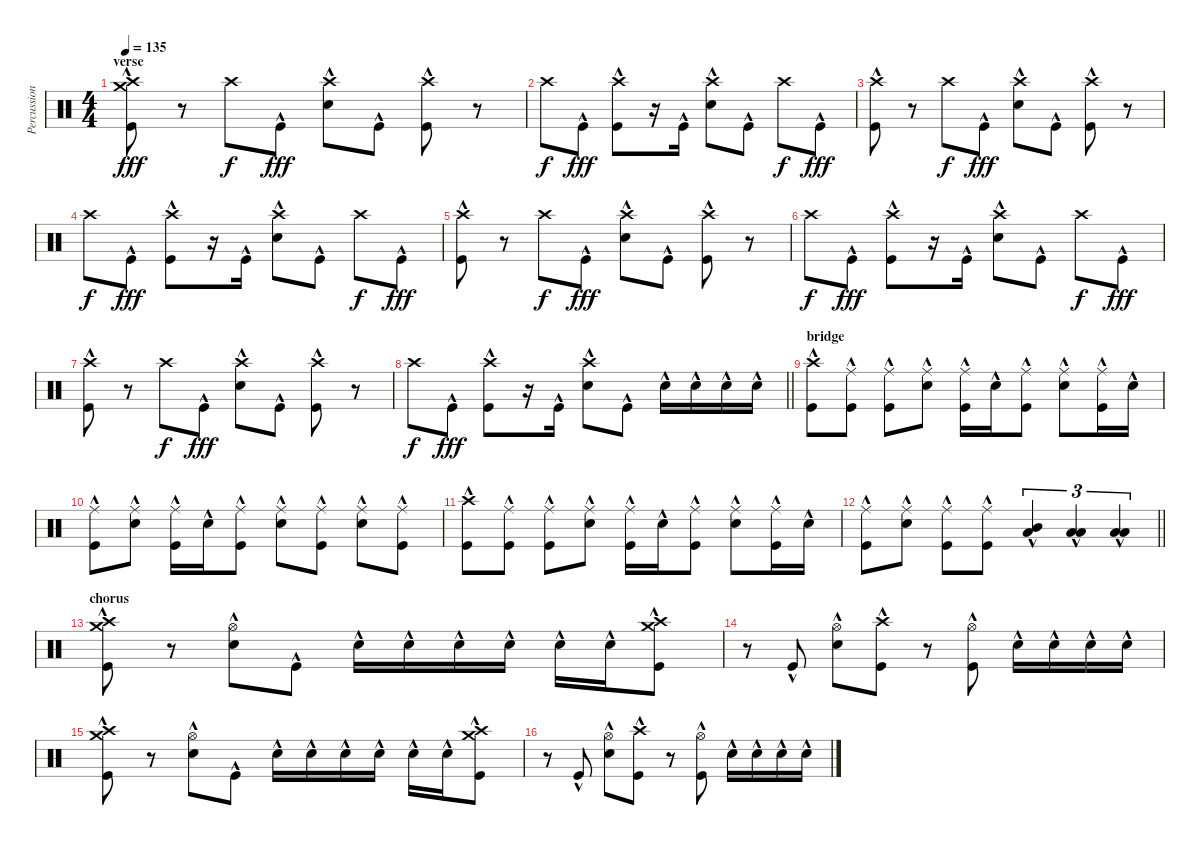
\track ("Percussion" "Percussion") {instrument percussion}
\staff {score}
\articulation defaults
\ts (4 4)
\section ("" "verse")
\tempo 135
\clef neutral
\ks c
("Crash medium (hit)" "Crash high (hit)" "Kick (hit)"{hac}).8{dy fff} r.8 "Crash high (hit)".8{dy f} "Kick (hit)"{hac}.8{dy fff} ("Crash high (hit)" "Snare (hit) 2"{hac}).8 "Kick (hit)"{hac}.8 ("Crash high (hit)" "Kick (hit)"{hac}).8 r.8 |
"Crash high (hit)".8{dy f} "Kick (hit)"{hac}.8{dy fff} ("Crash high (hit)" "Kick (hit)"{hac}).8 r.16 "Kick (hit)"{hac}.16 ("Crash high (hit)" "Snare (hit) 2"{hac}).8 "Kick (hit)"{hac}.8 "Crash high (hit)".8{dy f} "Kick (hit)"{hac}.8{dy fff} |
("Crash high (hit)" "Kick (hit)"{hac}).8 r.8 "Crash high (hit)".8{dy f} "Kick (hit)"{hac}.8{dy fff} ("Crash high (hit)" "Snare (hit) 2"{hac}).8 "Kick (hit)"{hac}.8 ("Crash high (hit)" "Kick (hit)"{hac}).8 r.8 |
"Crash high (hit)".8{dy f} "Kick (hit)"{hac}.8{dy fff} ("Crash high (hit)" "Kick (hit)"{hac}).8 r.16 "Kick (hit)"{hac}.16 ("Crash high (hit)" "Snare (hit) 2"{hac}).8 "Kick (hit)"{hac}.8 "Crash high (hit)".8{dy f} "Kick (hit)"{hac}.8{dy fff} |
("Crash high (hit)" "Kick (hit)"{hac}).8 r.8 "Crash high (hit)".8{dy f} "Kick (hit)"{hac}.8{dy fff} ("Crash high (hit)" "Snare (hit) 2"{hac}).8 "Kick (hit)"{hac}.8 ("Crash high (hit)" "Kick (hit)"{hac}).8 r.8 |
"Crash high (hit)".8{dy f} "Kick (hit)"{hac}.8{dy fff} ("Crash high (hit)" "Kick (hit)"{hac}).8 r.16 "Kick (hit)"{hac}.16 ("Crash high (hit)" "Snare (hit) 2"{hac}).8 "Kick (hit)"{hac}.8 "Crash high (hit)".8{dy f} "Kick (hit)"{hac}.8{dy fff} |
("Crash high (hit)" "Kick (hit)"{hac}).8 r.8 "Crash high (hit)".8{dy f} "Kick (hit)"{hac}.8{dy fff} ("Crash high (hit)" "Snare (hit) 2"{hac}).8 "Kick (hit)"{hac}.8 ("Crash high (hit)" "Kick (hit)"{hac}).8 r.8 |
\barLineRight lightlight "Crash high (hit)".8{dy f} "Kick (hit)"{hac}.8{dy fff}
("Crash high (hit)" "Kick (hit)"{hac}).8 r.16 "Kick (hit)"{hac}.16 ("Crash high (hit)" "Snare (hit) 2"{hac}).8 "Kick (hit)"{hac}.8 "Snare (hit) 2"{hac}.16 "Snare (hit) 2"{hac}.16 "Snare (hit) 2"{hac}.16 "Snare (hit) 2"{hac}.16 |
\section ("" "bridge")
("Crash high (hit)" "Kick (hit)"{hac}).8 ("Ride (middle)" "Kick (hit)"{hac}).8 ("Ride (middle)" "Kick (hit)"{hac}).8 ("Ride (middle)" "Snare (hit) 2"{hac}).8 ("Ride (middle)" "Kick (hit)"{hac}).16 "Snare (hit) 2"{hac}.16 ("Ride (middle)" "Kick (hit)"{hac}).8 ("Ride (middle)" "Snare (hit) 2"{hac}).8 ("Ride (middle)" "Kick (hit)"{hac}).16 "Snare (hit) 2"{hac}.16 |
("Ride (middle)" "Kick (hit)"{hac}).8 ("Ride (middle)" "Snare (hit) 2"{hac}).8 ("Ride (middle)" "Kick (hit)"{hac}).16 "Snare (hit) 2"{hac}.16 ("Ride (middle)" "Kick (hit)"{hac}).8 ("Ride (middle)" "Snare (hit) 2"{hac}).8 ("Ride (middle)" "Kick (hit)"{hac}).8 ("Ride (middle)" "Snare (hit) 2"{hac}).8 ("Ride (middle)" "Kick (hit)"{hac}).8 |
("Crash high (hit)" "Kick (hit)"{hac}).8 ("Ride (middle)" "Kick (hit)"{hac}).8 ("Ride (middle)" "Kick (hit)"{hac}).8 ("Ride (middle)" "Snare (hit) 2"{hac}).8 ("Ride (middle)" "Kick (hit)"{hac}).16 "Snare (hit) 2"{hac}.16 ("Ride (middle)" "Kick (hit)"{hac}).8 ("Ride (middle)" "Snare (hit) 2"{hac}).8 ("Ride (middle)" "Kick (hit)"{hac}).16 "Snare (hit) 2"{hac}.16 |
\barLineRight lightlight
("Ride (middle)" "Kick (hit)"{hac}).8 ("Ride (middle)" "Snare (hit) 2"{hac}).8 ("Ride (middle)" "Kick (hit)"{hac}).8 ("Ride (middle)" "Kick (hit)"{hac}).8 ("Mid Tom (hit)"{hac} "Low Tom (hit)"{hac}).4{tu (3 2)} ("Low Tom (hit)"{hac} "Low Floor Tom (hit)"{hac}).4{tu (3 2)} ("Low Floor Tom (hit)"{hac} "Low Floor Tom (hit)"{hac}).4{tu (3 2)} |
\section ("" "chorus")
("Crash medium (hit)" "Crash high (hit)" "Kick (hit)"{hac}).8 r.8 ("Hi-Hat (open)" "Snare (hit) 2"{hac}).8 "Kick (hit)"{hac}.8 "Snare (hit) 2"{hac}.16 "Snare (hit) 2"{hac}.16 "Snare (hit) 2"{hac}.16 "Snare (hit) 2"{hac}.16 "Snare (hit) 2"{hac}.16 "Snare (hit) 2"{hac}.16 ("Crash medium (hit)" "Crash high (hit)" "Kick (hit)"{hac}).8 |
r.8 "Kick (hit)"{hac}.8 ("Hi-Hat (open)" "Snare (hit) 2"{hac}).8 ("Crash high (hit)" "Kick (hit)"{hac}).8 r.8 ("Hi-Hat (open)" "Kick (hit)"{hac}).8 "Snare (hit) 2"{hac}.16 "Snare (hit) 2"{hac}.16 "Snare (hit) 2"{hac}.16 "Snare (hit) 2"{hac}.16 |
("Crash medium (hit)" "Crash high (hit)" "Kick (hit)"{hac}).8 r.8 ("Hi-Hat (open)" "Snare (hit) 2"{hac}).8 "Kick (hit)"{hac}.8 "Snare (hit) 2"{hac}.16 "Snare (hit) 2"{hac}.16 "Snare (hit) 2"{hac}.16 "Snare (hit) 2"{hac}.16 "Snare (hit) 2"{hac}.16 "Snare (hit) 2"{hac}.16 ("Crash medium (hit)" "Crash high (hit)" "Kick (hit)"{hac}).8 |
r.8 "Kick (hit)"{hac}.8 ("Hi-Hat (open)" "Snare (hit) 2"{hac}).8 ("Crash high (hit)" "Kick (hit)"{hac}).8 r.8 ("Hi-Hat (open)" "Kick (hit)"{hac}).8 "Snare (hit) 2"{hac}.16 "Snare (hit) 2"{hac}.16 "Snare (hit) 2"{hac}.16 "Snare (hit) 2"{hac}.16
